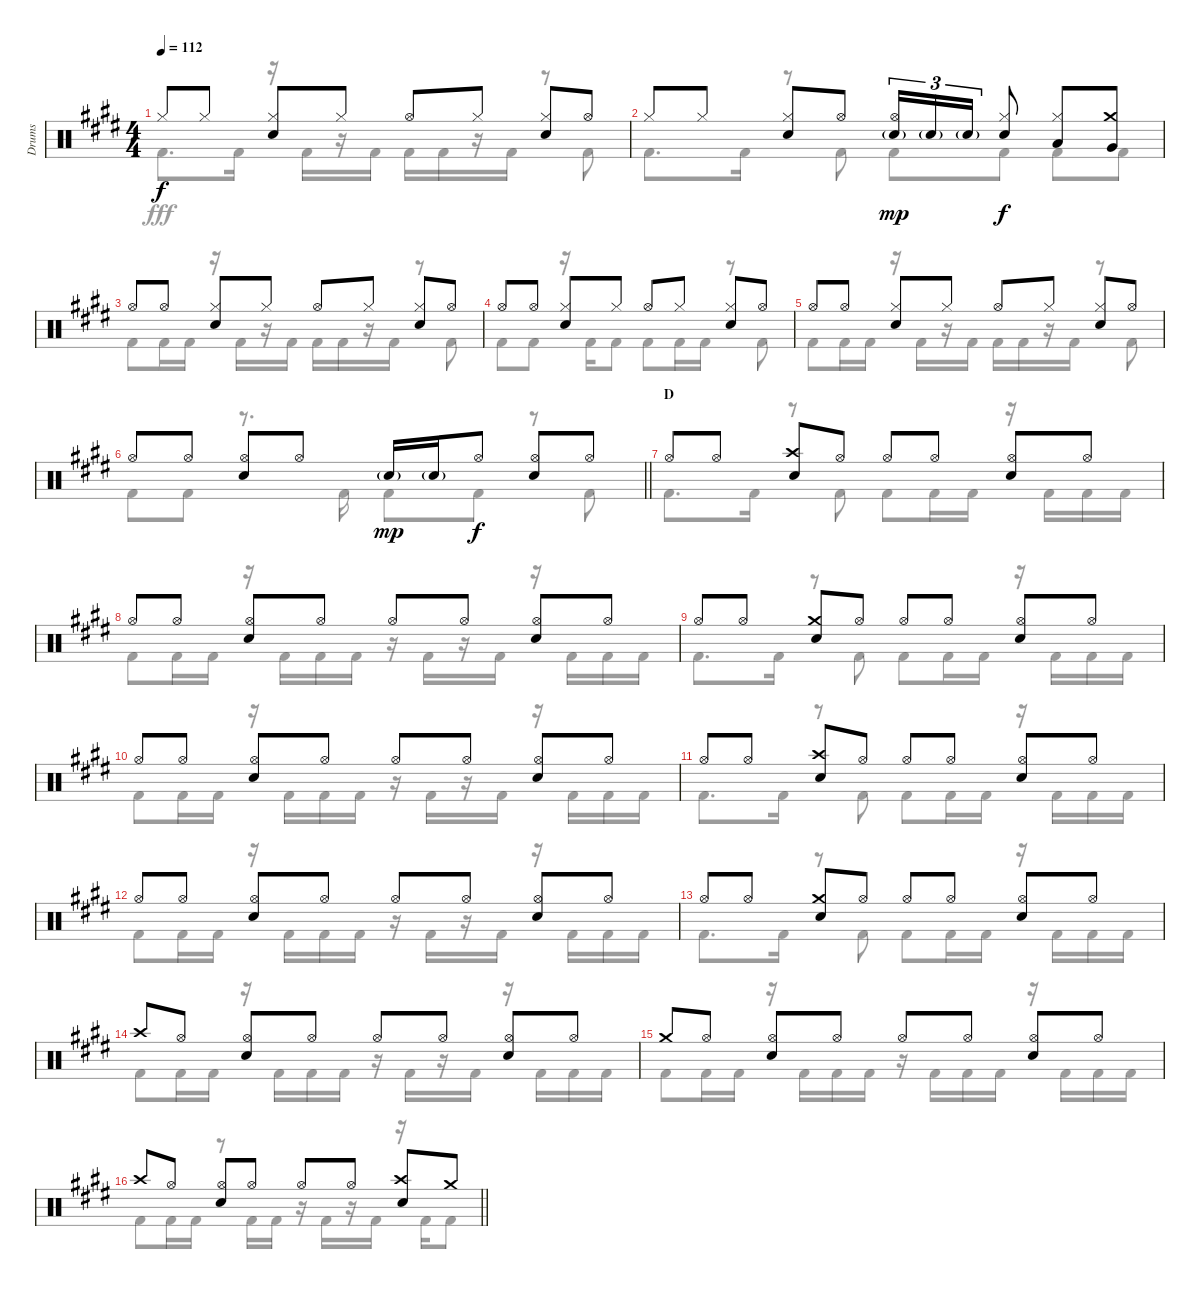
\track ("Drums" "Drums") {instrument percussion}
\staff {score}
\articulation defaults
\voice
\ts (4 4)
\tempo 112
\clef neutral
\ks e "Hi-Hat (closed)".8{dy f} "Hi-Hat (closed)".8
("Hi-Hat (closed)" "Snare (hit) 2").8 "Hi-Hat (closed)".8 "Hi-Hat (open)".8 "Hi-Hat (closed)".8 ("Hi-Hat (closed)" "Snare (hit) 2").8 "Hi-Hat (open)".8 |
"Hi-Hat (closed)".8 "Hi-Hat (closed)".8 ("Hi-Hat (closed)" "Snare (hit) 2").8 "Hi-Hat (open)".8 ("Hi-Hat (open)" "Snare (hit) 2"{g}).16{tu (3 2) dy mp} "Snare (hit) 2"{g}.16{tu (3 2)} "Snare (hit) 2"{g}.16{tu (3 2)} ("Hi-Hat (closed)" "Snare (hit) 2").8{dy f} ("Hi-Hat (closed)" "Low Tom (hit)").8 ("Crash medium (hit)" "Very Low Tom (hit)").8 |
"Hi-Hat (open)".8 "Hi-Hat (open)".8 ("Hi-Hat (closed)" "Snare (hit) 2").8 "Hi-Hat (closed)".8 "Hi-Hat (open)".8 "Hi-Hat (closed)".8 ("Hi-Hat (closed)" "Snare (hit) 2").8 "Hi-Hat (open)".8 |
"Hi-Hat (open)".8 "Hi-Hat (open)".8 ("Hi-Hat (closed)" "Snare (hit) 2").8 "Hi-Hat (closed)".8 "Hi-Hat (open)".8 "Hi-Hat (closed)".8 ("Hi-Hat (closed)" "Snare (hit) 2").8 "Hi-Hat (open)".8 |
"Hi-Hat (open)".8 "Hi-Hat (open)".8 ("Hi-Hat (closed)" "Snare (hit) 2").8 "Hi-Hat (closed)".8 "Hi-Hat (open)".8 "Hi-Hat (closed)".8 ("Hi-Hat (closed)" "Snare (hit) 2").8 "Hi-Hat (open)".8 |
\barLineRight lightlight "Hi-Hat (open)".8 "Hi-Hat (open)".8
("Hi-Hat (open)" "Snare (hit) 2").8 "Hi-Hat (open)".8 "Snare (hit) 2"{g}.16{dy mp} "Snare (hit) 2"{g}.16 "Hi-Hat (open)".8{dy f} ("Hi-Hat (open)" "Snare (hit) 2").8 "Hi-Hat (open)".8 |
\section ("" "D")
"Hi-Hat (open)".8 "Hi-Hat (open)".8 ("Crash high (hit)" "Snare (hit) 2").8 "Hi-Hat (open)".8 "Hi-Hat (open)".8 "Hi-Hat (open)".8 ("Hi-Hat (open)" "Snare (hit) 2").8 "Hi-Hat (open)".8 |
"Hi-Hat (open)".8 "Hi-Hat (open)".8 ("Hi-Hat (open)" "Snare (hit) 2").8 "Hi-Hat (open)".8 "Hi-Hat (open)".8 "Hi-Hat (open)".8 ("Hi-Hat (open)" "Snare (hit) 2").8 "Hi-Hat (open)".8 |
"Hi-Hat (open)".8 "Hi-Hat (open)".8 ("Crash medium (hit)" "Snare (hit) 2").8 "Hi-Hat (open)".8 "Hi-Hat (open)".8 "Hi-Hat (open)".8 ("Hi-Hat (open)" "Snare (hit) 2").8 "Hi-Hat (open)".8 |
"Hi-Hat (open)".8 "Hi-Hat (open)".8 ("Hi-Hat (open)" "Snare (hit) 2").8 "Hi-Hat (open)".8 "Hi-Hat (open)".8 "Hi-Hat (open)".8 ("Hi-Hat (open)" "Snare (hit) 2").8 "Hi-Hat (open)".8 |
"Hi-Hat (open)".8 "Hi-Hat (open)".8 ("Crash high (hit)" "Snare (hit) 2").8 "Hi-Hat (open)".8 "Hi-Hat (open)".8 "Hi-Hat (open)".8 ("Hi-Hat (open)" "Snare (hit) 2").8 "Hi-Hat (open)".8 |
"Hi-Hat (open)".8 "Hi-Hat (open)".8 ("Hi-Hat (open)" "Snare (hit) 2").8 "Hi-Hat (open)".8 "Hi-Hat (open)".8 "Hi-Hat (open)".8 ("Hi-Hat (open)" "Snare (hit) 2").8 "Hi-Hat (open)".8 |
"Hi-Hat (open)".8 "Hi-Hat (open)".8 ("Crash medium (hit)" "Snare (hit) 2").8 "Hi-Hat (open)".8 "Hi-Hat (open)".8 "Hi-Hat (open)".8 ("Hi-Hat (open)" "Snare (hit) 2").8 "Hi-Hat (open)".8 |
"Crash high (hit)".8 "Hi-Hat (open)".8 ("Hi-Hat (open)" "Snare (hit) 2").8 "Hi-Hat (open)".8 "Hi-Hat (open)".8 "Hi-Hat (open)".8 ("Hi-Hat (open)" "Snare (hit) 2").8 "Hi-Hat (open)".8 |
"Crash medium (hit)".8 "Hi-Hat (open)".8 ("Hi-Hat (open)" "Snare (hit) 2").8 "Hi-Hat (open)".8 "Hi-Hat (open)".8 "Hi-Hat (open)".8 ("Hi-Hat (open)" "Snare (hit) 2").8 "Hi-Hat (open)".8 |
\barLineRight lightlight "Crash high (hit)".8 "Hi-Hat (open)".8
("Hi-Hat (open)" "Snare (hit) 2").8 "Hi-Hat (open)".8 "Hi-Hat (open)".8 "Hi-Hat (open)".8 ("Crash high (hit)" "Snare (hit) 2").8 "Crash medium (hit)".8
\voice
\clef neutral
\ottava regular
\simile none
\ks e "Kick (hit) 2".8{d dy fff} "Kick (hit) 2".16
r.16 "Kick (hit) 2".16 r.16 "Kick (hit) 2".16 "Kick (hit) 2".16 "Kick (hit) 2".16 r.16 "Kick (hit) 2".16 r.8 "Kick (hit) 2".8 |
"Kick (hit) 2".8{d} "Kick (hit) 2".16 r.8 "Kick (hit) 2".8 "Kick (hit) 2".8 "Kick (hit) 2".8 "Kick (hit) 2".8 "Kick (hit) 2".8 |
"Kick (hit) 2".8 "Kick (hit) 2".16 "Kick (hit) 2".16 r.16 "Kick (hit) 2".16 r.16 "Kick (hit) 2".16 "Kick (hit) 2".16 "Kick (hit) 2".16 r.16 "Kick (hit) 2".16 r.8 "Kick (hit) 2".8 |
"Kick (hit) 2".8 "Kick (hit) 2".8 r.16 "Kick (hit) 2".16 "Kick (hit) 2".8 "Kick (hit) 2".8 "Kick (hit) 2".16 "Kick (hit) 2".16 r.8 "Kick (hit) 2".8 |
"Kick (hit) 2".8 "Kick (hit) 2".16 "Kick (hit) 2".16 r.16 "Kick (hit) 2".16 r.16 "Kick (hit) 2".16 "Kick (hit) 2".16 "Kick (hit) 2".16 r.16 "Kick (hit) 2".16 r.8 "Kick (hit) 2".8 |
\barLineRight lightlight "Kick (hit) 2".8 "Kick (hit) 2".8
r.8{d} "Kick (hit) 2".16 "Kick (hit) 2".8 "Kick (hit) 2".8 r.8 "Kick (hit) 2".8 |
"Kick (hit) 2".8{d} "Kick (hit) 2".16 r.8 "Kick (hit) 2".8 "Kick (hit) 2".8 "Kick (hit) 2".16 "Kick (hit) 2".16 r.16 "Kick (hit) 2".16 "Kick (hit) 2".16 "Kick (hit) 2".16 |
"Kick (hit) 2".8 "Kick (hit) 2".16 "Kick (hit) 2".16 r.16 "Kick (hit) 2".16 "Kick (hit) 2".16 "Kick (hit) 2".16 r.16 "Kick (hit) 2".16 r.16 "Kick (hit) 2".16 r.16 "Kick (hit) 2".16 "Kick (hit) 2".16 "Kick (hit) 2".16 |
"Kick (hit) 2".8{d} "Kick (hit) 2".16 r.8 "Kick (hit) 2".8 "Kick (hit) 2".8 "Kick (hit) 2".16 "Kick (hit) 2".16 r.16 "Kick (hit) 2".16 "Kick (hit) 2".16 "Kick (hit) 2".16 |
"Kick (hit) 2".8 "Kick (hit) 2".16 "Kick (hit) 2".16 r.16 "Kick (hit) 2".16 "Kick (hit) 2".16 "Kick (hit) 2".16 r.16 "Kick (hit) 2".16 r.16 "Kick (hit) 2".16 r.16 "Kick (hit) 2".16 "Kick (hit) 2".16 "Kick (hit) 2".16 |
"Kick (hit) 2".8{d} "Kick (hit) 2".16 r.8 "Kick (hit) 2".8 "Kick (hit) 2".8 "Kick (hit) 2".16 "Kick (hit) 2".16 r.16 "Kick (hit) 2".16 "Kick (hit) 2".16 "Kick (hit) 2".16 |
"Kick (hit) 2".8 "Kick (hit) 2".16 "Kick (hit) 2".16 r.16 "Kick (hit) 2".16 "Kick (hit) 2".16 "Kick (hit) 2".16 r.16 "Kick (hit) 2".16 r.16 "Kick (hit) 2".16 r.16 "Kick (hit) 2".16 "Kick (hit) 2".16 "Kick (hit) 2".16 |
"Kick (hit) 2".8{d} "Kick (hit) 2".16 r.8 "Kick (hit) 2".8 "Kick (hit) 2".8 "Kick (hit) 2".16 "Kick (hit) 2".16 r.16 "Kick (hit) 2".16 "Kick (hit) 2".16 "Kick (hit) 2".16 |
"Kick (hit) 2".8 "Kick (hit) 2".16 "Kick (hit) 2".16 r.16 "Kick (hit) 2".16 "Kick (hit) 2".16 "Kick (hit) 2".16 r.16 "Kick (hit) 2".16 r.16 "Kick (hit) 2".16 r.16 "Kick (hit) 2".16 "Kick (hit) 2".16 "Kick (hit) 2".16 |
"Kick (hit) 2".8 "Kick (hit) 2".16 "Kick (hit) 2".16 r.16 "Kick (hit) 2".16 "Kick (hit) 2".16 "Kick (hit) 2".16 r.16 "Kick (hit) 2".16 "Kick (hit) 2".16 "Kick (hit) 2".16 r.16 "Kick (hit) 2".16 "Kick (hit) 2".16 "Kick (hit) 2".16 |
\barLineRight lightlight "Kick (hit) 2".8 "Kick (hit) 2".16 "Kick (hit) 2".16
r.8 "Kick (hit) 2".16 "Kick (hit) 2".16 r.16 "Kick (hit) 2".16 r.16 "Kick (hit) 2".16 r.16 "Kick (hit) 2".16 "Kick (hit) 2".8
